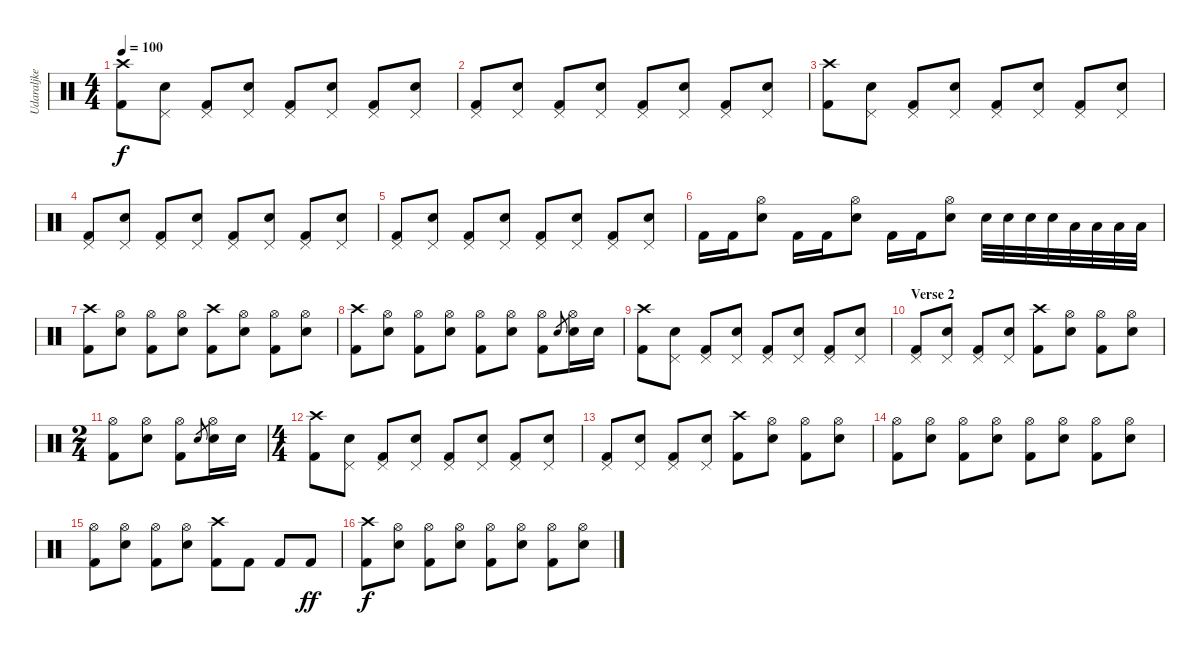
\track ("Udaraljke" "Udaraljke") {instrument percussion}
\staff {score}
\articulation defaults
\ts (4 4)
\tempo 100
\clef neutral
\ks c
("Crash high (hit)" "Kick (hit) 2").8{dy f} ("Pedal Hi-Hat (hit)" "Electric Snare (hit)").8 ("Pedal Hi-Hat (hit)" "Kick (hit) 2").8 ("Pedal Hi-Hat (hit)" "Electric Snare (hit)").8 ("Pedal Hi-Hat (hit)" "Kick (hit) 2").8 ("Pedal Hi-Hat (hit)" "Electric Snare (hit)").8 ("Pedal Hi-Hat (hit)" "Kick (hit) 2").8 ("Pedal Hi-Hat (hit)" "Electric Snare (hit)").8 |
("Pedal Hi-Hat (hit)" "Kick (hit) 2").8 ("Pedal Hi-Hat (hit)" "Electric Snare (hit)").8 ("Pedal Hi-Hat (hit)" "Kick (hit) 2").8 ("Pedal Hi-Hat (hit)" "Electric Snare (hit)").8 ("Pedal Hi-Hat (hit)" "Kick (hit) 2").8 ("Pedal Hi-Hat (hit)" "Electric Snare (hit)").8 ("Pedal Hi-Hat (hit)" "Kick (hit) 2").8 ("Pedal Hi-Hat (hit)" "Electric Snare (hit)").8 |
("Crash high (hit)" "Kick (hit) 2").8 ("Pedal Hi-Hat (hit)" "Electric Snare (hit)").8 ("Pedal Hi-Hat (hit)" "Kick (hit) 2").8 ("Pedal Hi-Hat (hit)" "Electric Snare (hit)").8 ("Pedal Hi-Hat (hit)" "Kick (hit) 2").8 ("Pedal Hi-Hat (hit)" "Electric Snare (hit)").8 ("Pedal Hi-Hat (hit)" "Kick (hit) 2").8 ("Pedal Hi-Hat (hit)" "Electric Snare (hit)").8 |
("Pedal Hi-Hat (hit)" "Kick (hit) 2").8 ("Pedal Hi-Hat (hit)" "Electric Snare (hit)").8 ("Pedal Hi-Hat (hit)" "Kick (hit) 2").8 ("Pedal Hi-Hat (hit)" "Electric Snare (hit)").8 ("Pedal Hi-Hat (hit)" "Kick (hit) 2").8 ("Pedal Hi-Hat (hit)" "Electric Snare (hit)").8 ("Pedal Hi-Hat (hit)" "Kick (hit) 2").8 ("Pedal Hi-Hat (hit)" "Electric Snare (hit)").8 |
("Pedal Hi-Hat (hit)" "Kick (hit) 2").8 ("Pedal Hi-Hat (hit)" "Electric Snare (hit)").8 ("Pedal Hi-Hat (hit)" "Kick (hit) 2").8 ("Pedal Hi-Hat (hit)" "Electric Snare (hit)").8 ("Pedal Hi-Hat (hit)" "Kick (hit) 2").8 ("Pedal Hi-Hat (hit)" "Electric Snare (hit)").8 ("Pedal Hi-Hat (hit)" "Kick (hit) 2").8 ("Pedal Hi-Hat (hit)" "Electric Snare (hit)").8 |
"Kick (hit) 2".16 "Kick (hit) 2".16 ("Hi-Hat (open)" "Electric Snare (hit)").8 "Kick (hit) 2".16 "Kick (hit) 2".16 ("Hi-Hat (open)" "Electric Snare (hit)").8 "Kick (hit) 2".16 "Kick (hit) 2".16 ("Hi-Hat (open)" "Electric Snare (hit)").8 "Electric Snare (hit)".32 "Electric Snare (hit)".32 "Electric Snare (hit)".32 "Electric Snare (hit)".32 "Low Tom (hit)".32 "Low Tom (hit)".32 "Low Tom (hit)".32 "Low Tom (hit)".32 |
("Crash high (hit)" "Kick (hit) 2").8 ("Hi-Hat (open)" "Electric Snare (hit)").8 ("Hi-Hat (open)" "Kick (hit) 2").8 ("Hi-Hat (open)" "Electric Snare (hit)").8 ("Crash high (hit)" "Kick (hit) 2").8 ("Hi-Hat (open)" "Electric Snare (hit)").8 ("Hi-Hat (open)" "Kick (hit) 2").8 ("Hi-Hat (open)" "Electric Snare (hit)").8 |
("Crash high (hit)" "Kick (hit) 2").8 ("Hi-Hat (open)" "Electric Snare (hit)").8 ("Hi-Hat (open)" "Kick (hit) 2").8 ("Hi-Hat (open)" "Electric Snare (hit)").8 ("Hi-Hat (open)" "Kick (hit) 2").8 ("Hi-Hat (open)" "Electric Snare (hit)").8 ("Hi-Hat (open)" "Kick (hit) 2").8 "Electric Snare (hit)".8{gr} ("Hi-Hat (open)" "Electric Snare (hit)").16 "Electric Snare (hit)".16 |
("Crash high (hit)" "Kick (hit) 2").8 ("Pedal Hi-Hat (hit)" "Electric Snare (hit)").8 ("Pedal Hi-Hat (hit)" "Kick (hit) 2").8 ("Pedal Hi-Hat (hit)" "Electric Snare (hit)").8 ("Pedal Hi-Hat (hit)" "Kick (hit) 2").8 ("Pedal Hi-Hat (hit)" "Electric Snare (hit)").8 ("Pedal Hi-Hat (hit)" "Kick (hit) 2").8 ("Pedal Hi-Hat (hit)" "Electric Snare (hit)").8 |
\section ("" "Verse 2")
("Pedal Hi-Hat (hit)" "Kick (hit) 2").8 ("Pedal Hi-Hat (hit)" "Electric Snare (hit)").8 ("Pedal Hi-Hat (hit)" "Kick (hit) 2").8 ("Pedal Hi-Hat (hit)" "Electric Snare (hit)").8 ("Crash high (hit)" "Kick (hit) 2").8 ("Hi-Hat (open)" "Electric Snare (hit)").8 ("Hi-Hat (open)" "Kick (hit) 2").8 ("Hi-Hat (open)" "Electric Snare (hit)").8 |
\ts (2 4)
("Hi-Hat (open)" "Kick (hit) 2").8 ("Hi-Hat (open)" "Electric Snare (hit)").8 ("Hi-Hat (open)" "Kick (hit) 2").8 "Electric Snare (hit)".8{gr} ("Hi-Hat (open)" "Electric Snare (hit)").16 "Electric Snare (hit)".16 |
\ts (4 4)
("Crash high (hit)" "Kick (hit) 2").8 ("Pedal Hi-Hat (hit)" "Electric Snare (hit)").8 ("Pedal Hi-Hat (hit)" "Kick (hit) 2").8 ("Pedal Hi-Hat (hit)" "Electric Snare (hit)").8 ("Pedal Hi-Hat (hit)" "Kick (hit) 2").8 ("Pedal Hi-Hat (hit)" "Electric Snare (hit)").8 ("Pedal Hi-Hat (hit)" "Kick (hit) 2").8 ("Pedal Hi-Hat (hit)" "Electric Snare (hit)").8 |
("Pedal Hi-Hat (hit)" "Kick (hit) 2").8 ("Pedal Hi-Hat (hit)" "Electric Snare (hit)").8 ("Pedal Hi-Hat (hit)" "Kick (hit) 2").8 ("Pedal Hi-Hat (hit)" "Electric Snare (hit)").8 ("Crash high (hit)" "Kick (hit) 2").8 ("Hi-Hat (open)" "Electric Snare (hit)").8 ("Hi-Hat (open)" "Kick (hit) 2").8 ("Hi-Hat (open)" "Electric Snare (hit)").8 |
("Hi-Hat (open)" "Kick (hit) 2").8 ("Hi-Hat (open)" "Electric Snare (hit)").8 ("Hi-Hat (open)" "Kick (hit) 2").8 ("Hi-Hat (open)" "Electric Snare (hit)").8 ("Hi-Hat (open)" "Kick (hit) 2").8 ("Hi-Hat (open)" "Electric Snare (hit)").8 ("Hi-Hat (open)" "Kick (hit) 2").8 ("Hi-Hat (open)" "Electric Snare (hit)").8 |
("Hi-Hat (open)" "Kick (hit) 2").8 ("Hi-Hat (open)" "Electric Snare (hit)").8 ("Hi-Hat (open)" "Kick (hit) 2").8 ("Hi-Hat (open)" "Electric Snare (hit)").8 ("Crash high (hit)" "Kick (hit) 2").8 "Kick (hit) 2".8 "Kick (hit) 2".8 "Kick (hit) 2".8{dy ff} |
("Crash high (hit)" "Kick (hit) 2").8{dy f} ("Hi-Hat (open)" "Electric Snare (hit)").8 ("Hi-Hat (open)" "Kick (hit) 2").8 ("Hi-Hat (open)" "Electric Snare (hit)").8 ("Hi-Hat (open)" "Kick (hit) 2").8 ("Hi-Hat (open)" "Electric Snare (hit)").8 ("Hi-Hat (open)" "Kick (hit) 2").8 ("Hi-Hat (open)" "Electric Snare (hit)").8
